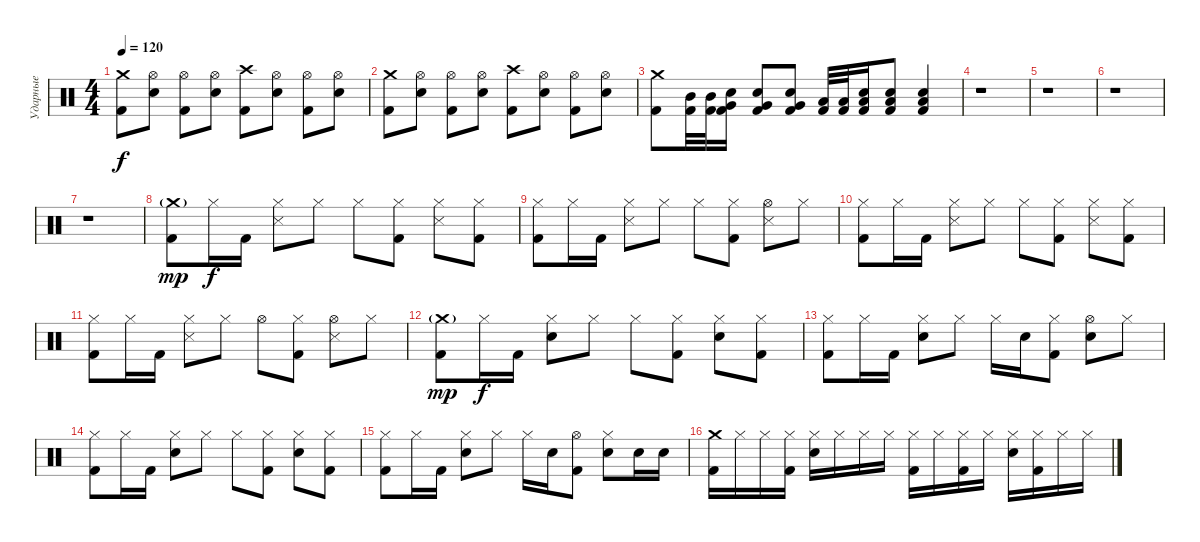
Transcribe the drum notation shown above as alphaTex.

\track ("Ударные" "Ударные") {instrument percussion}
\staff {score}
\articulation defaults
\ts (4 4)
\tempo 120
\clef neutral
\ks c
("Crash medium (hit)" "Kick (hit) 2").8{dy f} ("Hi-Hat (open)" "Electric Snare (hit)").8 ("Hi-Hat (open)" "Kick (hit) 2").8 ("Hi-Hat (open)" "Electric Snare (hit)").8 ("Crash high (hit)" "Kick (hit) 2").8 ("Hi-Hat (open)" "Electric Snare (hit)").8 ("Hi-Hat (open)" "Kick (hit) 2").8 ("Hi-Hat (open)" "Electric Snare (hit)").8 |
("Crash medium (hit)" "Kick (hit) 2").8 ("Hi-Hat (open)" "Electric Snare (hit)").8 ("Hi-Hat (open)" "Kick (hit) 2").8 ("Hi-Hat (open)" "Electric Snare (hit)").8 ("Crash high (hit)" "Kick (hit) 2").8 ("Hi-Hat (open)" "Electric Snare (hit)").8 ("Hi-Hat (open)" "Kick (hit) 2").8 ("Hi-Hat (open)" "Electric Snare (hit)").8 |
("Crash medium (hit)" "Kick (hit) 2").8 ("Mid Tom (hit)" "Kick (hit) 2").32 ("Mid Tom (hit)" "Kick (hit) 2").32 ("Electric Snare (hit)" "Very Low Tom (hit)" "Kick (hit) 2").16 ("Electric Snare (hit)" "Very Low Tom (hit)" "Kick (hit) 2").8 ("Electric Snare (hit)" "Very Low Tom (hit)" "Kick (hit) 2").8 ("Low Tom (hit)" "Kick (hit) 2").32 ("Low Tom (hit)" "Kick (hit) 2").32 ("Electric Snare (hit)" "Low Floor Tom (hit)" "Kick (hit) 2").16 ("Electric Snare (hit)" "Low Floor Tom (hit)" "Kick (hit) 2").8 ("Electric Snare (hit)" "Low Floor Tom (hit)" "Kick (hit) 2").4 |
r.1 |
r.1 |
r.1 |
r.1 |
("Crash medium (hit)"{g} "Kick (hit) 2").8{dy mp} "Hi-Hat (closed)".16{dy f} "Kick (hit) 2".16 ("Hi-Hat (closed)" "Snare (side stick) 3").8 "Hi-Hat (closed)".8 "Hi-Hat (closed)".8 ("Hi-Hat (closed)" "Kick (hit) 2").8 ("Hi-Hat (closed)" "Snare (side stick) 3").8 ("Hi-Hat (closed)" "Kick (hit) 2").8 |
("Hi-Hat (closed)" "Kick (hit) 2").8 "Hi-Hat (closed)".16 "Kick (hit) 2".16 ("Hi-Hat (closed)" "Snare (side stick) 3").8 "Hi-Hat (closed)".8 "Hi-Hat (closed)".8 ("Hi-Hat (closed)" "Kick (hit) 2").8 ("Hi-Hat (open)" "Snare (side stick) 3").8 "Hi-Hat (closed)".8 |
("Hi-Hat (closed)" "Kick (hit) 2").8 "Hi-Hat (closed)".16 "Kick (hit) 2".16 ("Hi-Hat (closed)" "Snare (side stick) 3").8 "Hi-Hat (closed)".8 "Hi-Hat (closed)".8 ("Hi-Hat (closed)" "Kick (hit) 2").8 ("Hi-Hat (closed)" "Snare (side stick) 3").8 ("Hi-Hat (closed)" "Kick (hit) 2").8 |
("Hi-Hat (closed)" "Kick (hit) 2").8 "Hi-Hat (closed)".16 "Kick (hit) 2".16 ("Hi-Hat (closed)" "Snare (side stick) 3").8 "Hi-Hat (closed)".8 "Hi-Hat (open)".8 ("Hi-Hat (closed)" "Kick (hit) 2").8 ("Hi-Hat (open)" "Snare (side stick) 3").8 "Hi-Hat (closed)".8 |
("Crash medium (hit)"{g} "Kick (hit) 2").8{dy mp} "Hi-Hat (closed)".16{dy f} "Kick (hit) 2".16 ("Hi-Hat (closed)" "Electric Snare (hit)").8 "Hi-Hat (closed)".8 "Hi-Hat (closed)".8 ("Hi-Hat (closed)" "Kick (hit) 2").8 ("Hi-Hat (closed)" "Electric Snare (hit)").8 ("Hi-Hat (closed)" "Kick (hit) 2").8 |
("Hi-Hat (closed)" "Kick (hit) 2").8 "Hi-Hat (closed)".16 "Kick (hit) 2".16 ("Hi-Hat (closed)" "Electric Snare (hit)").8 "Hi-Hat (closed)".8 "Hi-Hat (closed)".16 "Electric Snare (hit)".16 ("Hi-Hat (closed)" "Kick (hit) 2").8 ("Hi-Hat (open)" "Electric Snare (hit)").8 "Hi-Hat (closed)".8 |
("Hi-Hat (closed)" "Kick (hit) 2").8 "Hi-Hat (closed)".16 "Kick (hit) 2".16 ("Hi-Hat (closed)" "Electric Snare (hit)").8 "Hi-Hat (closed)".8 "Hi-Hat (closed)".8 ("Hi-Hat (closed)" "Kick (hit) 2").8 ("Hi-Hat (closed)" "Electric Snare (hit)").8 ("Hi-Hat (closed)" "Kick (hit) 2").8 |
("Hi-Hat (closed)" "Kick (hit) 2").8 "Hi-Hat (closed)".16 "Kick (hit) 2".16 ("Hi-Hat (closed)" "Electric Snare (hit)").8 "Hi-Hat (closed)".8 "Hi-Hat (closed)".16 "Electric Snare (hit)".16 ("Hi-Hat (open)" "Kick (hit) 2").8 ("Hi-Hat (closed)" "Electric Snare (hit)").8 "Electric Snare (hit)".16 "Electric Snare (hit)".16 |
("Crash medium (hit)" "Kick (hit) 2").16 "Hi-Hat (closed)".16 "Hi-Hat (closed)".16 ("Hi-Hat (closed)" "Kick (hit) 2").16 ("Hi-Hat (closed)" "Electric Snare (hit)").16 "Hi-Hat (closed)".16 "Hi-Hat (closed)".16 "Hi-Hat (closed)".16 ("Hi-Hat (closed)" "Kick (hit) 2").16 "Hi-Hat (closed)".16 ("Hi-Hat (closed)" "Kick (hit) 2").16 "Hi-Hat (closed)".16 ("Hi-Hat (closed)" "Electric Snare (hit)").16 ("Hi-Hat (closed)" "Kick (hit) 2").16 "Hi-Hat (closed)".16 "Hi-Hat (closed)".16
